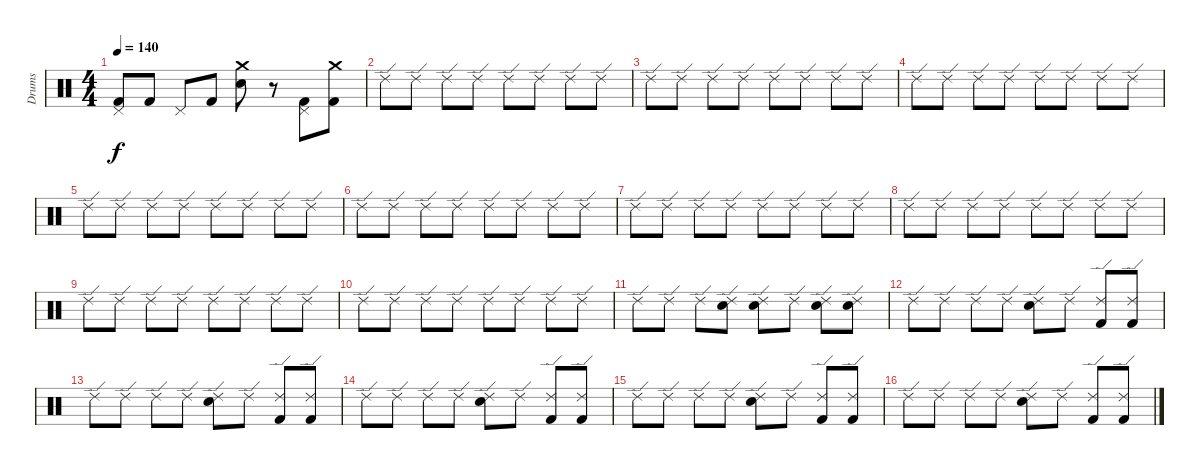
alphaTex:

\track ("Drums" "Drums") {instrument percussion}
\staff {score}
\articulation defaults
\ts (4 4)
\tempo 140
\clef neutral
\ks c
("Pedal Hi-Hat (hit)" "Kick (hit) 2").8{dy f} "Kick (hit) 2".8 "Pedal Hi-Hat (hit)".8 "Kick (hit) 2".8 ("Crash medium (hit)" "Snare (hit) 2").8 r.8 ("Pedal Hi-Hat (hit)" "Kick (hit) 2").8 ("Crash medium (hit)" "Kick (hit) 2").8 |
"Ride (edge) 2".8 "Ride (edge) 2".8 "Ride (edge) 2".8 "Ride (edge) 2".8 "Ride (edge) 2".8 "Ride (edge) 2".8 "Ride (edge) 2".8 "Ride (edge) 2".8 |
"Ride (edge) 2".8 "Ride (edge) 2".8 "Ride (edge) 2".8 "Ride (edge) 2".8 "Ride (edge) 2".8 "Ride (edge) 2".8 "Ride (edge) 2".8 "Ride (edge) 2".8 |
"Ride (edge) 2".8 "Ride (edge) 2".8 "Ride (edge) 2".8 "Ride (edge) 2".8 "Ride (edge) 2".8 "Ride (edge) 2".8 "Ride (edge) 2".8 "Ride (edge) 2".8 |
"Ride (edge) 2".8 "Ride (edge) 2".8 "Ride (edge) 2".8 "Ride (edge) 2".8 "Ride (edge) 2".8 "Ride (edge) 2".8 "Ride (edge) 2".8 "Ride (edge) 2".8 |
"Ride (edge) 2".8 "Ride (edge) 2".8 "Ride (edge) 2".8 "Ride (edge) 2".8 "Ride (edge) 2".8 "Ride (edge) 2".8 "Ride (edge) 2".8 "Ride (edge) 2".8 |
"Ride (edge) 2".8 "Ride (edge) 2".8 "Ride (edge) 2".8 "Ride (edge) 2".8 "Ride (edge) 2".8 "Ride (edge) 2".8 "Ride (edge) 2".8 "Ride (edge) 2".8 |
"Ride (edge) 2".8 "Ride (edge) 2".8 "Ride (edge) 2".8 "Ride (edge) 2".8 "Ride (edge) 2".8 "Ride (edge) 2".8 "Ride (edge) 2".8 "Ride (edge) 2".8 |
"Ride (edge) 2".8 "Ride (edge) 2".8 "Ride (edge) 2".8 "Ride (edge) 2".8 "Ride (edge) 2".8 "Ride (edge) 2".8 "Ride (edge) 2".8 "Ride (edge) 2".8 |
"Ride (edge) 2".8 "Ride (edge) 2".8 "Ride (edge) 2".8 "Ride (edge) 2".8 "Ride (edge) 2".8 "Ride (edge) 2".8 "Ride (edge) 2".8 "Ride (edge) 2".8 |
"Ride (edge) 2".8 "Ride (edge) 2".8 "Ride (edge) 2".8 ("Ride (edge) 2" "Snare (hit) 2").8 ("Ride (edge) 2" "Snare (hit) 2").8 "Ride (edge) 2".8 ("Ride (edge) 2" "Snare (hit) 2").8 ("Ride (edge) 2" "Snare (hit) 2").8 |
"Ride (edge) 2".8 "Ride (edge) 2".8 "Ride (edge) 2".8 "Ride (edge) 2".8 ("Ride (edge) 2" "Snare (hit) 2").8 "Ride (edge) 2".8 ("Ride (edge) 2" "Kick (hit) 2").8 ("Ride (edge) 2" "Kick (hit) 2").8 |
"Ride (edge) 2".8 "Ride (edge) 2".8 "Ride (edge) 2".8 "Ride (edge) 2".8 ("Ride (edge) 2" "Snare (hit) 2").8 "Ride (edge) 2".8 ("Ride (edge) 2" "Kick (hit) 2").8 ("Ride (edge) 2" "Kick (hit) 2").8 |
"Ride (edge) 2".8 "Ride (edge) 2".8 "Ride (edge) 2".8 "Ride (edge) 2".8 ("Ride (edge) 2" "Snare (hit) 2").8 "Ride (edge) 2".8 ("Ride (edge) 2" "Kick (hit) 2").8 ("Ride (edge) 2" "Kick (hit) 2").8 |
"Ride (edge) 2".8 "Ride (edge) 2".8 "Ride (edge) 2".8 "Ride (edge) 2".8 ("Ride (edge) 2" "Snare (hit) 2").8 "Ride (edge) 2".8 ("Ride (edge) 2" "Kick (hit) 2").8 ("Ride (edge) 2" "Kick (hit) 2").8 |
"Ride (edge) 2".8 "Ride (edge) 2".8 "Ride (edge) 2".8 "Ride (edge) 2".8 ("Ride (edge) 2" "Snare (hit) 2").8 "Ride (edge) 2".8 ("Ride (edge) 2" "Kick (hit) 2").8 ("Ride (edge) 2" "Kick (hit) 2").8
